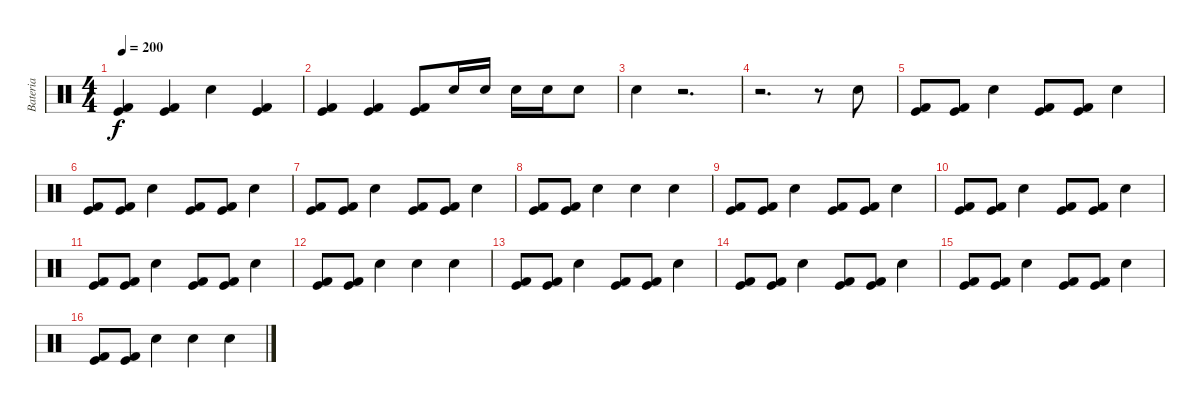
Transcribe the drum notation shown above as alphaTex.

\track ("Bateria" "Bateria") {instrument percussion}
\staff {score}
\articulation defaults
\ts (4 4)
\tempo 200
\clef neutral
\ks c
("Kick (hit)" "Kick (hit) 2").4{dy f} ("Kick (hit)" "Kick (hit) 2").4 "Electric Snare (hit)".4 ("Kick (hit)" "Kick (hit) 2").4 |
("Kick (hit)" "Kick (hit) 2").4 ("Kick (hit)" "Kick (hit) 2").4 ("Kick (hit)" "Kick (hit) 2").8 "Electric Snare (hit)".16 "Electric Snare (hit)".16 "Electric Snare (hit)".16 "Electric Snare (hit)".16 "Electric Snare (hit)".8 |
"Electric Snare (hit)".4 r.2{d} |
r.2{d} r.8 "Electric Snare (hit)".8 |
("Kick (hit)" "Kick (hit) 2").8 ("Kick (hit)" "Kick (hit) 2").8 "Electric Snare (hit)".4 ("Kick (hit)" "Kick (hit) 2").8 ("Kick (hit)" "Kick (hit) 2").8 "Electric Snare (hit)".4 |
("Kick (hit)" "Kick (hit) 2").8 ("Kick (hit)" "Kick (hit) 2").8 "Electric Snare (hit)".4 ("Kick (hit)" "Kick (hit) 2").8 ("Kick (hit)" "Kick (hit) 2").8 "Electric Snare (hit)".4 |
("Kick (hit)" "Kick (hit) 2").8 ("Kick (hit)" "Kick (hit) 2").8 "Electric Snare (hit)".4 ("Kick (hit)" "Kick (hit) 2").8 ("Kick (hit)" "Kick (hit) 2").8 "Electric Snare (hit)".4 |
("Kick (hit)" "Kick (hit) 2").8 ("Kick (hit)" "Kick (hit) 2").8 "Electric Snare (hit)".4 "Electric Snare (hit)".4 "Electric Snare (hit)".4 |
("Kick (hit)" "Kick (hit) 2").8 ("Kick (hit)" "Kick (hit) 2").8 "Electric Snare (hit)".4 ("Kick (hit)" "Kick (hit) 2").8 ("Kick (hit)" "Kick (hit) 2").8 "Electric Snare (hit)".4 |
("Kick (hit)" "Kick (hit) 2").8 ("Kick (hit)" "Kick (hit) 2").8 "Electric Snare (hit)".4 ("Kick (hit)" "Kick (hit) 2").8 ("Kick (hit)" "Kick (hit) 2").8 "Electric Snare (hit)".4 |
("Kick (hit)" "Kick (hit) 2").8 ("Kick (hit)" "Kick (hit) 2").8 "Electric Snare (hit)".4 ("Kick (hit)" "Kick (hit) 2").8 ("Kick (hit)" "Kick (hit) 2").8 "Electric Snare (hit)".4 |
("Kick (hit)" "Kick (hit) 2").8 ("Kick (hit)" "Kick (hit) 2").8 "Electric Snare (hit)".4 "Electric Snare (hit)".4 "Electric Snare (hit)".4 |
("Kick (hit)" "Kick (hit) 2").8 ("Kick (hit)" "Kick (hit) 2").8 "Electric Snare (hit)".4 ("Kick (hit)" "Kick (hit) 2").8 ("Kick (hit)" "Kick (hit) 2").8 "Electric Snare (hit)".4 |
("Kick (hit)" "Kick (hit) 2").8 ("Kick (hit)" "Kick (hit) 2").8 "Electric Snare (hit)".4 ("Kick (hit)" "Kick (hit) 2").8 ("Kick (hit)" "Kick (hit) 2").8 "Electric Snare (hit)".4 |
("Kick (hit)" "Kick (hit) 2").8 ("Kick (hit)" "Kick (hit) 2").8 "Electric Snare (hit)".4 ("Kick (hit)" "Kick (hit) 2").8 ("Kick (hit)" "Kick (hit) 2").8 "Electric Snare (hit)".4 |
("Kick (hit)" "Kick (hit) 2").8 ("Kick (hit)" "Kick (hit) 2").8 "Electric Snare (hit)".4 "Electric Snare (hit)".4 "Electric Snare (hit)".4
